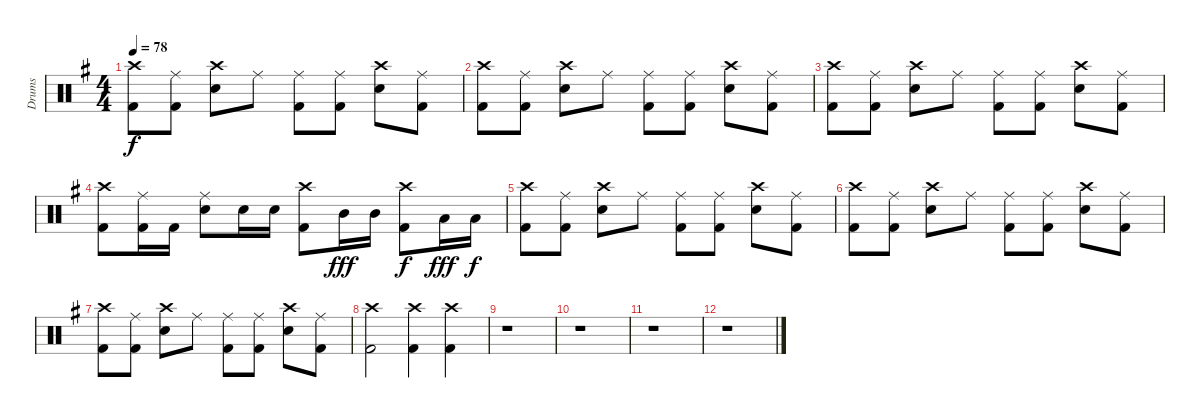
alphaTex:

\track ("Drums" "Drums") {instrument percussion}
\staff {score}
\articulation defaults
\ts (4 4)
\tempo 78
\clef neutral
\ks g
("Crash high (hit)" "Kick (hit) 2").8{dy f} ("Ride (middle)" "Kick (hit) 2").8 ("Crash high (hit)" "Electric Snare (hit)").8 "Ride (middle)".8 ("Ride (middle)" "Kick (hit) 2").8 ("Ride (middle)" "Kick (hit) 2").8 ("Crash high (hit)" "Electric Snare (hit)").8 ("Ride (middle)" "Kick (hit) 2").8 |
("Crash high (hit)" "Kick (hit) 2").8 ("Ride (middle)" "Kick (hit) 2").8 ("Crash high (hit)" "Electric Snare (hit)").8 "Ride (middle)".8 ("Ride (middle)" "Kick (hit) 2").8 ("Ride (middle)" "Kick (hit) 2").8 ("Crash high (hit)" "Electric Snare (hit)").8 ("Ride (middle)" "Kick (hit) 2").8 |
("Crash high (hit)" "Kick (hit) 2").8 ("Ride (middle)" "Kick (hit) 2").8 ("Crash high (hit)" "Electric Snare (hit)").8 "Ride (middle)".8 ("Ride (middle)" "Kick (hit) 2").8 ("Ride (middle)" "Kick (hit) 2").8 ("Crash high (hit)" "Electric Snare (hit)").8 ("Ride (middle)" "Kick (hit) 2").8 |
("Crash high (hit)" "Kick (hit) 2").8 ("Ride (middle)" "Kick (hit) 2").16 "Kick (hit) 2".16 ("Ride (middle)" "Snare (hit) 2").8 "Electric Snare (hit)".16 "Electric Snare (hit)".16 ("Crash high (hit)" "Kick (hit) 2").8 "Mid Tom (hit)".16{dy fff} "Mid Tom (hit)".16 ("Crash high (hit)" "Kick (hit) 2").8{dy f} "Low Tom (hit)".16{dy fff} "Low Tom (hit)".16{dy f} |
("Crash high (hit)" "Kick (hit) 2").8 ("Ride (middle)" "Kick (hit) 2").8 ("Crash high (hit)" "Electric Snare (hit)").8 "Ride (middle)".8 ("Ride (middle)" "Kick (hit) 2").8 ("Ride (middle)" "Kick (hit) 2").8 ("Crash high (hit)" "Electric Snare (hit)").8 ("Ride (middle)" "Kick (hit) 2").8 |
("Crash high (hit)" "Kick (hit) 2").8 ("Ride (middle)" "Kick (hit) 2").8 ("Crash high (hit)" "Electric Snare (hit)").8 "Ride (middle)".8 ("Ride (middle)" "Kick (hit) 2").8 ("Ride (middle)" "Kick (hit) 2").8 ("Crash high (hit)" "Electric Snare (hit)").8 ("Ride (middle)" "Kick (hit) 2").8 |
("Crash high (hit)" "Kick (hit) 2").8 ("Ride (middle)" "Kick (hit) 2").8 ("Crash high (hit)" "Electric Snare (hit)").8 "Ride (middle)".8 ("Ride (middle)" "Kick (hit) 2").8 ("Ride (middle)" "Kick (hit) 2").8 ("Crash high (hit)" "Electric Snare (hit)").8 ("Ride (middle)" "Kick (hit) 2").8 |
("Crash high (hit)" "Kick (hit) 2").2 ("Crash high (hit)" "Kick (hit) 2").4 ("Crash high (hit)" "Kick (hit) 2").4 |
r.1 |
r.1 |
r.1 |
r.1
